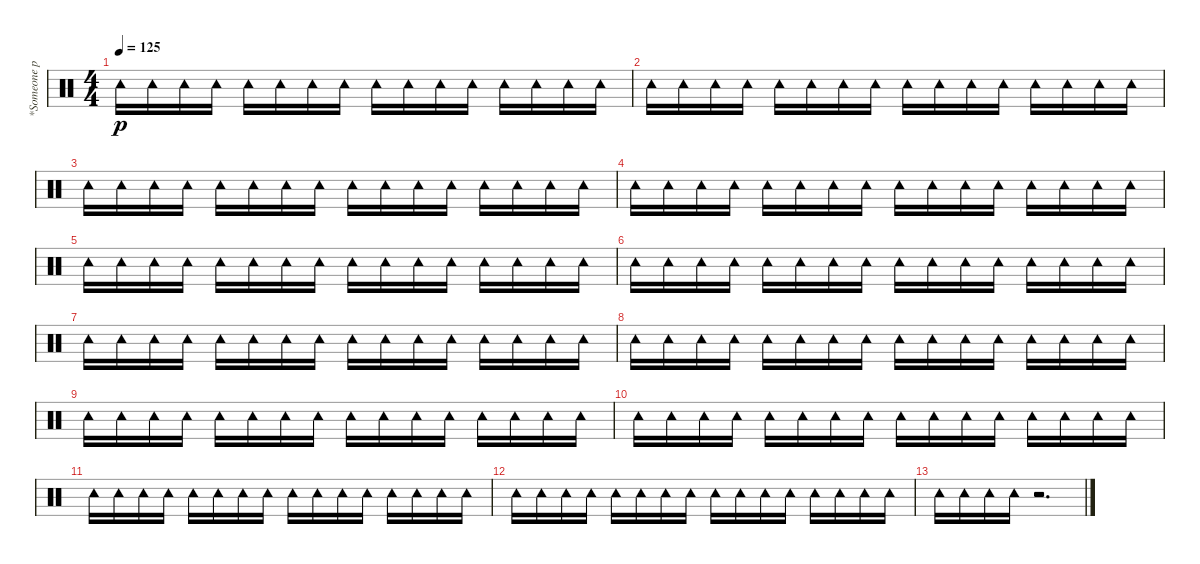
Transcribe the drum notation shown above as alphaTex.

\track ("*Someone play the tambourine" "*Someone p") {instrument percussion}
\staff {score}
\articulation defaults
\ts (4 4)
\tempo 125
\clef neutral
\ks c "Tambourine (hit)".16{dy p} "Tambourine (hit)".16 "Tambourine (hit)".16 "Tambourine (hit)".16 "Tambourine (hit)".16 "Tambourine (hit)".16 "Tambourine (hit)".16 "Tambourine (hit)".16 "Tambourine (hit)".16 "Tambourine (hit)".16 "Tambourine (hit)".16 "Tambourine (hit)".16 "Tambourine (hit)".16 "Tambourine (hit)".16 "Tambourine (hit)".16 "Tambourine (hit)".16
|
"Tambourine (hit)".16 "Tambourine (hit)".16 "Tambourine (hit)".16 "Tambourine (hit)".16 "Tambourine (hit)".16 "Tambourine (hit)".16 "Tambourine (hit)".16 "Tambourine (hit)".16 "Tambourine (hit)".16 "Tambourine (hit)".16 "Tambourine (hit)".16 "Tambourine (hit)".16 "Tambourine (hit)".16 "Tambourine (hit)".16 "Tambourine (hit)".16 "Tambourine (hit)".16 |
"Tambourine (hit)".16 "Tambourine (hit)".16 "Tambourine (hit)".16 "Tambourine (hit)".16 "Tambourine (hit)".16 "Tambourine (hit)".16 "Tambourine (hit)".16 "Tambourine (hit)".16 "Tambourine (hit)".16 "Tambourine (hit)".16 "Tambourine (hit)".16 "Tambourine (hit)".16 "Tambourine (hit)".16 "Tambourine (hit)".16 "Tambourine (hit)".16 "Tambourine (hit)".16 |
"Tambourine (hit)".16 "Tambourine (hit)".16 "Tambourine (hit)".16 "Tambourine (hit)".16 "Tambourine (hit)".16 "Tambourine (hit)".16 "Tambourine (hit)".16 "Tambourine (hit)".16 "Tambourine (hit)".16 "Tambourine (hit)".16 "Tambourine (hit)".16 "Tambourine (hit)".16 "Tambourine (hit)".16 "Tambourine (hit)".16 "Tambourine (hit)".16 "Tambourine (hit)".16 |
"Tambourine (hit)".16 "Tambourine (hit)".16 "Tambourine (hit)".16 "Tambourine (hit)".16 "Tambourine (hit)".16 "Tambourine (hit)".16 "Tambourine (hit)".16 "Tambourine (hit)".16 "Tambourine (hit)".16 "Tambourine (hit)".16 "Tambourine (hit)".16 "Tambourine (hit)".16 "Tambourine (hit)".16 "Tambourine (hit)".16 "Tambourine (hit)".16 "Tambourine (hit)".16 |
"Tambourine (hit)".16 "Tambourine (hit)".16 "Tambourine (hit)".16 "Tambourine (hit)".16 "Tambourine (hit)".16 "Tambourine (hit)".16 "Tambourine (hit)".16 "Tambourine (hit)".16 "Tambourine (hit)".16 "Tambourine (hit)".16 "Tambourine (hit)".16 "Tambourine (hit)".16 "Tambourine (hit)".16 "Tambourine (hit)".16 "Tambourine (hit)".16 "Tambourine (hit)".16 |
"Tambourine (hit)".16 "Tambourine (hit)".16 "Tambourine (hit)".16 "Tambourine (hit)".16 "Tambourine (hit)".16 "Tambourine (hit)".16 "Tambourine (hit)".16 "Tambourine (hit)".16 "Tambourine (hit)".16 "Tambourine (hit)".16 "Tambourine (hit)".16 "Tambourine (hit)".16 "Tambourine (hit)".16 "Tambourine (hit)".16 "Tambourine (hit)".16 "Tambourine (hit)".16 |
"Tambourine (hit)".16 "Tambourine (hit)".16 "Tambourine (hit)".16 "Tambourine (hit)".16 "Tambourine (hit)".16 "Tambourine (hit)".16 "Tambourine (hit)".16 "Tambourine (hit)".16 "Tambourine (hit)".16 "Tambourine (hit)".16 "Tambourine (hit)".16 "Tambourine (hit)".16 "Tambourine (hit)".16 "Tambourine (hit)".16 "Tambourine (hit)".16 "Tambourine (hit)".16 |
"Tambourine (hit)".16 "Tambourine (hit)".16 "Tambourine (hit)".16 "Tambourine (hit)".16 "Tambourine (hit)".16 "Tambourine (hit)".16 "Tambourine (hit)".16 "Tambourine (hit)".16 "Tambourine (hit)".16 "Tambourine (hit)".16 "Tambourine (hit)".16 "Tambourine (hit)".16 "Tambourine (hit)".16 "Tambourine (hit)".16 "Tambourine (hit)".16 "Tambourine (hit)".16 |
"Tambourine (hit)".16 "Tambourine (hit)".16 "Tambourine (hit)".16 "Tambourine (hit)".16 "Tambourine (hit)".16 "Tambourine (hit)".16 "Tambourine (hit)".16 "Tambourine (hit)".16 "Tambourine (hit)".16 "Tambourine (hit)".16 "Tambourine (hit)".16 "Tambourine (hit)".16 "Tambourine (hit)".16 "Tambourine (hit)".16 "Tambourine (hit)".16 "Tambourine (hit)".16 |
"Tambourine (hit)".16 "Tambourine (hit)".16 "Tambourine (hit)".16 "Tambourine (hit)".16 "Tambourine (hit)".16 "Tambourine (hit)".16 "Tambourine (hit)".16 "Tambourine (hit)".16 "Tambourine (hit)".16 "Tambourine (hit)".16 "Tambourine (hit)".16 "Tambourine (hit)".16 "Tambourine (hit)".16 "Tambourine (hit)".16 "Tambourine (hit)".16 "Tambourine (hit)".16 |
"Tambourine (hit)".16 "Tambourine (hit)".16 "Tambourine (hit)".16 "Tambourine (hit)".16 "Tambourine (hit)".16 "Tambourine (hit)".16 "Tambourine (hit)".16 "Tambourine (hit)".16 "Tambourine (hit)".16 "Tambourine (hit)".16 "Tambourine (hit)".16 "Tambourine (hit)".16 "Tambourine (hit)".16 "Tambourine (hit)".16 "Tambourine (hit)".16 "Tambourine (hit)".16 |
"Tambourine (hit)".16 "Tambourine (hit)".16 "Tambourine (hit)".16 "Tambourine (hit)".16 r.2{d}
